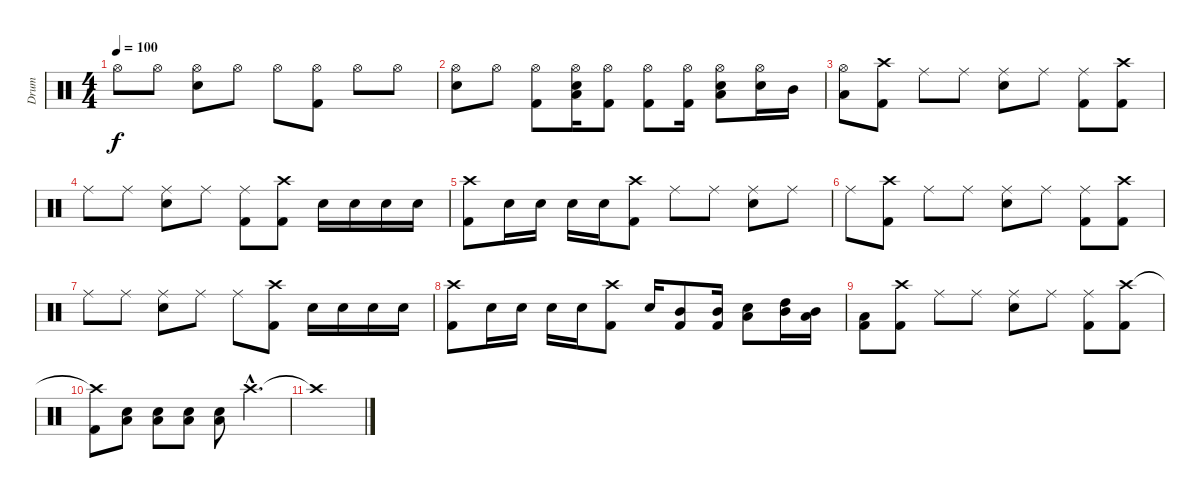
\track ("Drum" "Drum") {instrument percussion}
\staff {score}
\articulation defaults
\ts (4 4)
\tempo 100
\clef neutral
\ks c "Hi-Hat (open)".8{dy f} "Hi-Hat (open)".8
("Hi-Hat (open)" "Snare (hit) 2").8 "Hi-Hat (open)".8 "Hi-Hat (open)".8 ("Hi-Hat (open)" "Kick (hit) 2").8 "Hi-Hat (open)".8 "Hi-Hat (open)".8 |
("Hi-Hat (open)" "Snare (hit) 2").8 "Hi-Hat (open)".8 ("Hi-Hat (open)" "Kick (hit) 2").8 ("Hi-Hat (open)" "Snare (hit) 2" "Low Floor Tom (hit)").16 ("Hi-Hat (open)" "Kick (hit) 2").8 ("Hi-Hat (open)" "Kick (hit) 2").8 ("Hi-Hat (open)" "Kick (hit) 2").16 ("Hi-Hat (open)" "Snare (hit) 2" "Low Floor Tom (hit)").8 ("Hi-Hat (open)" "Snare (hit) 2").16 "Mid Tom (hit)".16 |
("Hi-Hat (open)" "Low Floor Tom (hit)").8 ("Crash high (hit)" "Kick (hit) 2").8 "Ride (middle)".8 "Ride (middle)".8 ("Ride (middle)" "Snare (hit) 2").8 "Ride (middle)".8 ("Ride (middle)" "Kick (hit) 2").8 ("Crash high (hit)" "Kick (hit) 2").8 |
"Ride (middle)".8 "Ride (middle)".8 ("Ride (middle)" "Snare (hit) 2").8 "Ride (middle)".8 ("Ride (middle)" "Kick (hit) 2").8 ("Crash high (hit)" "Kick (hit) 2").8 "Snare (hit) 2".16 "Snare (hit) 2".16 "Snare (hit) 2".16 "Snare (hit) 2".16 |
("Crash high (hit)" "Kick (hit) 2").8 "Snare (hit) 2".16 "Snare (hit) 2".16 "Snare (hit) 2".16 "Snare (hit) 2".16 ("Crash high (hit)" "Kick (hit) 2").8 "Ride (middle)".8 "Ride (middle)".8 ("Ride (middle)" "Snare (hit) 2").8 "Ride (middle)".8 |
"Ride (middle)".8 ("Crash high (hit)" "Kick (hit) 2").8 "Ride (middle)".8 "Ride (middle)".8 ("Ride (middle)" "Snare (hit) 2").8 "Ride (middle)".8 ("Ride (middle)" "Kick (hit) 2").8 ("Crash high (hit)" "Kick (hit) 2").8 |
"Ride (middle)".8 "Ride (middle)".8 ("Ride (middle)" "Snare (hit) 2").8 "Ride (middle)".8 "Ride (middle)".8 ("Crash high (hit)" "Kick (hit) 2").8 "Snare (hit) 2".16 "Snare (hit) 2".16 "Snare (hit) 2".16 "Snare (hit) 2".16 |
("Crash high (hit)" "Kick (hit) 2").8 "Snare (hit) 2".16 "Snare (hit) 2".16 "Snare (hit) 2".16 "Snare (hit) 2".16 ("Crash high (hit)" "Kick (hit) 2").8 "Snare (hit) 2".16 ("Mid Tom (hit)" "Kick (hit) 2").8 ("Mid Tom (hit)" "Kick (hit) 2").16 ("Snare (hit) 2" "Low Floor Tom (hit)").8 ("Mid Tom (hit)" "High Tom (hit)").16 ("Mid Tom (hit)" "Low Floor Tom (hit)").16 |
("Low Floor Tom (hit)" "Kick (hit) 2").8 ("Crash high (hit)" "Kick (hit) 2").8 "Ride (middle)".8 "Ride (middle)".8 ("Ride (middle)" "Snare (hit) 2").8 "Ride (middle)".8 ("Ride (middle)" "Kick (hit) 2").8 ("Crash high (hit)" "Kick (hit) 2").8 |
("Crash high (hit)"{t} "Kick (hit) 2").8 ("Snare (hit) 2" "Low Floor Tom (hit)").8 ("Snare (hit) 2" "Low Floor Tom (hit)").8 ("Snare (hit) 2" "Low Floor Tom (hit)").8 ("Snare (hit) 2" "Low Floor Tom (hit)").8 "Crash high (hit)"{hac}.4{d} |
"Crash high (hit)"{t}.1
